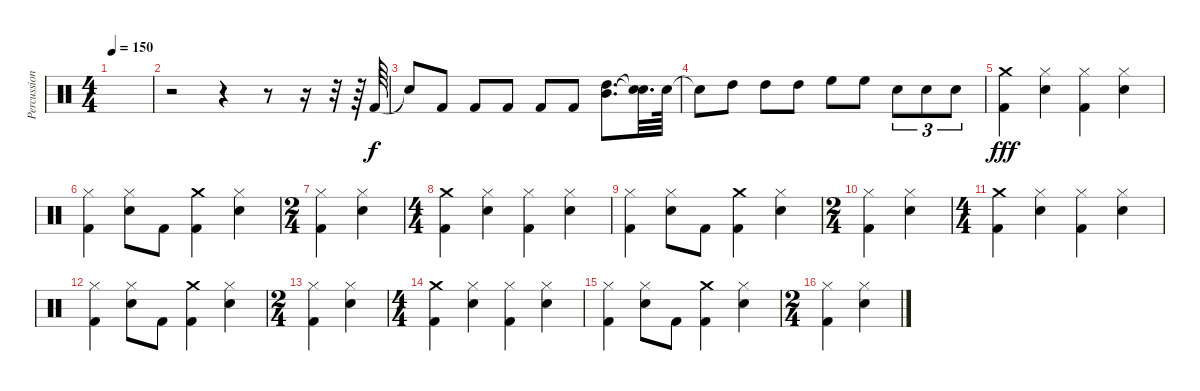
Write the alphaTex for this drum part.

\track ("Percussion" "Percussion") {instrument percussion}
\staff {score}
\articulation defaults
\ts (4 4)
\tempo 150
\clef neutral
\ks c
|
r.2 r.4 r.8 r.16 r.32 r.64 "Kick (hit) 2".64 |
"Snare (hit)"{t}.8 "Kick (hit) 2".8 "Kick (hit) 2".8 "Kick (hit) 2".8 "Kick (hit) 2".8 "Kick (hit) 2".8 ("Mid Tom (hit)" "High Tom (hit)").8{d} ("Snare (hit)"{t} "Snare (hit)"{t}).32{d} "Snare (hit) 2".64 |
"Snare (hit)"{t}.8 "High Tom (hit)".8 "High Tom (hit)".8 "High Tom (hit)".8 "High Floor Tom (hit)".8 "High Floor Tom (hit)".8 "Snare (hit) 2".8{tu (3 2)} "Snare (hit) 2".8{tu (3 2)} "Snare (hit) 2".8{tu (3 2)} |
("Kick (hit) 2" "Crash medium (hit)").4{dy fff} ("Hi-Hat (closed)" "Snare (hit) 2").4 ("Hi-Hat (closed)" "Kick (hit) 2").4 ("Snare (hit) 2" "Hi-Hat (closed)").4 |
("Hi-Hat (closed)" "Kick (hit) 2").4 ("Snare (hit) 2" "Hi-Hat (closed)").8 "Kick (hit) 2".8 ("Kick (hit) 2" "Crash medium (hit)").4 ("Hi-Hat (closed)" "Snare (hit) 2").4 |
\ts (2 4)
("Hi-Hat (closed)" "Kick (hit) 2").4 ("Snare (hit) 2" "Hi-Hat (closed)").4 |
\ts (4 4)
("Kick (hit) 2" "Crash medium (hit)").4 ("Hi-Hat (closed)" "Snare (hit) 2").4 ("Hi-Hat (closed)" "Kick (hit) 2").4 ("Snare (hit) 2" "Hi-Hat (closed)").4 |
("Hi-Hat (closed)" "Kick (hit) 2").4 ("Snare (hit) 2" "Hi-Hat (closed)").8 "Kick (hit) 2".8 ("Kick (hit) 2" "Crash medium (hit)").4 ("Hi-Hat (closed)" "Snare (hit) 2").4 |
\ts (2 4)
("Hi-Hat (closed)" "Kick (hit) 2").4 ("Snare (hit) 2" "Hi-Hat (closed)").4 |
\ts (4 4)
("Kick (hit) 2" "Crash medium (hit)").4 ("Hi-Hat (closed)" "Snare (hit) 2").4 ("Hi-Hat (closed)" "Kick (hit) 2").4 ("Snare (hit) 2" "Hi-Hat (closed)").4 |
("Hi-Hat (closed)" "Kick (hit) 2").4 ("Snare (hit) 2" "Hi-Hat (closed)").8 "Kick (hit) 2".8 ("Kick (hit) 2" "Crash medium (hit)").4 ("Hi-Hat (closed)" "Snare (hit) 2").4 |
\ts (2 4)
("Hi-Hat (closed)" "Kick (hit) 2").4 ("Snare (hit) 2" "Hi-Hat (closed)").4 |
\ts (4 4)
("Kick (hit) 2" "Crash medium (hit)").4 ("Hi-Hat (closed)" "Snare (hit) 2").4 ("Hi-Hat (closed)" "Kick (hit) 2").4 ("Snare (hit) 2" "Hi-Hat (closed)").4 |
("Hi-Hat (closed)" "Kick (hit) 2").4 ("Snare (hit) 2" "Hi-Hat (closed)").8 "Kick (hit) 2".8 ("Kick (hit) 2" "Crash medium (hit)").4 ("Hi-Hat (closed)" "Snare (hit) 2").4 |
\ts (2 4)
("Hi-Hat (closed)" "Kick (hit) 2").4 ("Snare (hit) 2" "Hi-Hat (closed)").4
